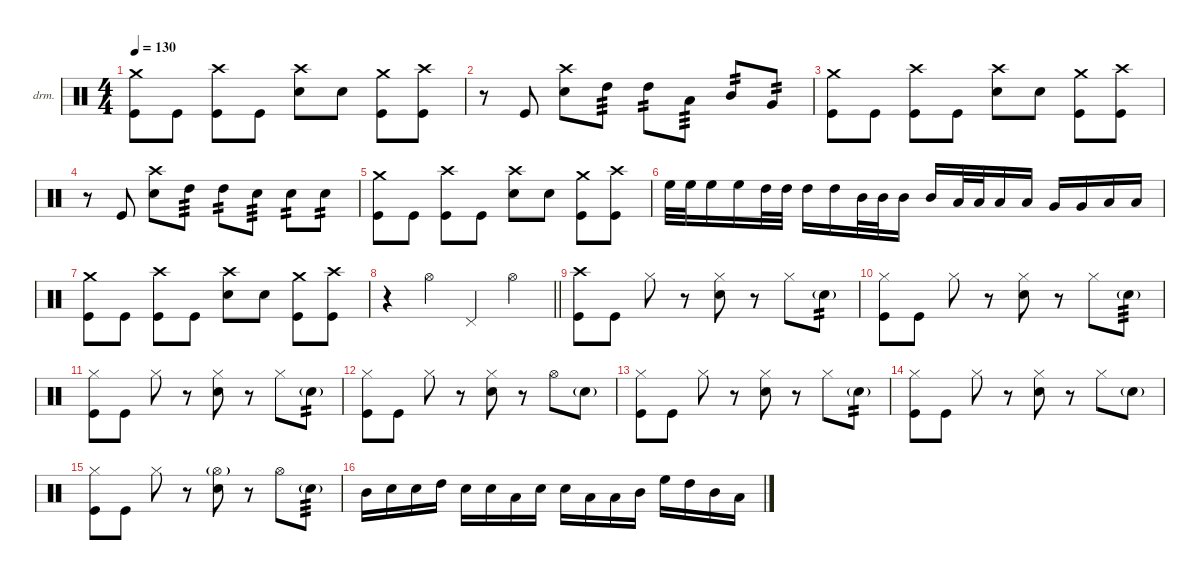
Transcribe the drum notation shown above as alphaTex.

\defaultSystemsLayout 4
\hideDynamics
\bracketExtendMode nobrackets
\firstSystemTrackNameOrientation horizontal
\otherSystemsTrackNameOrientation horizontal
\track ("Drums" "drm.") {instrument percussion}
\staff {score}
\articulation defaults
\ts (4 4)
\section ("" "")
\tempo 130
\clef neutral
\ks c
("Crash medium (hit)" "Kick (hit)").8{dy f} "Kick (hit)".8 ("Crash high (hit)" "Kick (hit)").8 "Kick (hit)".8 ("Crash high (hit)" "Snare (hit) 2").8 "Snare (hit) 2".8 ("Crash medium (hit)" "Kick (hit)").8 ("Crash high (hit)" "Kick (hit)").8 |
r.8 "Kick (hit)".8 ("Crash high (hit)" "Snare (hit) 2").8 "High Tom (hit)".8{tp 3} "High Tom (hit)".8{tp 2} "Low Tom (hit)".8{tp 3} "Mid Tom (hit)".8{tp 2} "Very Low Tom (hit)".8{tp 2} |
("Crash medium (hit)" "Kick (hit)").8 "Kick (hit)".8 ("Crash high (hit)" "Kick (hit)").8 "Kick (hit)".8 ("Crash high (hit)" "Snare (hit) 2").8 "Snare (hit) 2".8 ("Crash medium (hit)" "Kick (hit)").8 ("Crash high (hit)" "Kick (hit)").8 |
r.8 "Kick (hit)".8 ("Crash high (hit)" "Snare (hit) 2").8 "High Tom (hit)".8{tp 3} "High Tom (hit)".8{tp 2} "Snare (hit) 2".8{tp 3} "Snare (hit) 2".8{tp 2} "Snare (hit) 2".8{tp 2} |
("Crash medium (hit)" "Kick (hit)").8 "Kick (hit)".8 ("Crash high (hit)" "Kick (hit)").8 "Kick (hit)".8 ("Crash high (hit)" "Snare (hit) 2").8 "Snare (hit) 2".8 ("Crash medium (hit)" "Kick (hit)").8 ("Crash high (hit)" "Kick (hit)").8 |
"High Floor Tom (hit)".32 "High Floor Tom (hit)".32 "High Floor Tom (hit)".16 "High Floor Tom (hit)".16 "High Tom (hit)".32 "High Tom (hit)".32 "High Tom (hit)".16 "High Tom (hit)".16 "Mid Tom (hit)".32 "Mid Tom (hit)".32 "Mid Tom (hit)".16 "Mid Tom (hit)".16 "Low Tom (hit)".32 "Low Tom (hit)".32 "Low Tom (hit)".16 "Low Tom (hit)".16 "Very Low Tom (hit)".16 "Very Low Tom (hit)".16 "Low Floor Tom (hit)".16 "Low Floor Tom (hit)".16 |
("Crash medium (hit)" "Kick (hit)").8 "Kick (hit)".8 ("Crash high (hit)" "Kick (hit)").8 "Kick (hit)".8 ("Crash high (hit)" "Snare (hit) 2").8 "Snare (hit) 2".8 ("Crash medium (hit)" "Kick (hit)").8 ("Crash high (hit)" "Kick (hit)").8 |
\barLineRight lightlight
r.4 "Hi-Hat (open)".4 "Pedal Hi-Hat (hit)".4 "Hi-Hat (open)".4 |
\section ("" "")
("Crash high (hit)" "Kick (hit)").8 "Kick (hit)".8 "Hi-Hat (closed)".8 r.8 ("Hi-Hat (closed)" "Snare (hit) 2").8 r.8 "Hi-Hat (closed)".8 "Snare (hit) 2"{g}.8{tp 2 dy mf} |
("Hi-Hat (closed)" "Kick (hit)").8{dy f} "Kick (hit)".8 "Hi-Hat (closed)".8 r.8 ("Hi-Hat (closed)" "Snare (hit) 2").8 r.8 "Hi-Hat (closed)".8 "Snare (hit) 2"{g}.8{tp 3 dy mf} |
("Hi-Hat (closed)" "Kick (hit)").8{dy f} "Kick (hit)".8 "Hi-Hat (closed)".8 r.8 ("Hi-Hat (closed)" "Snare (hit) 2").8 r.8 "Hi-Hat (closed)".8 "Snare (hit) 2"{g}.8{tp 2 dy mf} |
("Hi-Hat (closed)" "Kick (hit)").8{dy f} "Kick (hit)".8 "Hi-Hat (closed)".8 r.8 ("Hi-Hat (closed)" "Snare (hit) 2").8 r.8 "Hi-Hat (open)".8 "Snare (hit) 2"{g}.8{dy mf} |
("Hi-Hat (closed)" "Kick (hit)").8{dy f} "Kick (hit)".8 "Hi-Hat (closed)".8 r.8 ("Hi-Hat (closed)" "Snare (hit) 2").8 r.8 "Hi-Hat (closed)".8 "Snare (hit) 2"{g}.8{tp 2 dy mf} |
("Hi-Hat (closed)" "Kick (hit)").8{dy f} "Kick (hit)".8 "Hi-Hat (closed)".8 r.8 ("Hi-Hat (closed)" "Snare (hit) 2").8 r.8 "Hi-Hat (closed)".8 "Snare (hit) 2"{g}.8{dy mf} |
("Hi-Hat (closed)" "Kick (hit)").8{dy f} "Kick (hit)".8 "Hi-Hat (closed)".8 r.8 ("Hi-Hat (open)"{g} "Snare (hit) 2").8 r.8 "Hi-Hat (open)".8 "Snare (hit) 2"{g}.8{tp 3 dy mf} |
"Mid Tom (hit)".16{dy f} "Snare (hit) 2".16 "Snare (hit) 2".16 "High Tom (hit)".16 "Snare (hit) 2".16 "Snare (hit) 2".16 "Low Tom (hit)".16 "Snare (hit) 2".16 "Snare (hit) 2".16 "Low Tom (hit)".16 "Low Tom (hit)".16 "Mid Tom (hit)".16 "High Floor Tom (hit)".16 "High Tom (hit)".16 "Mid Tom (hit)".16 "Low Tom (hit)".16
